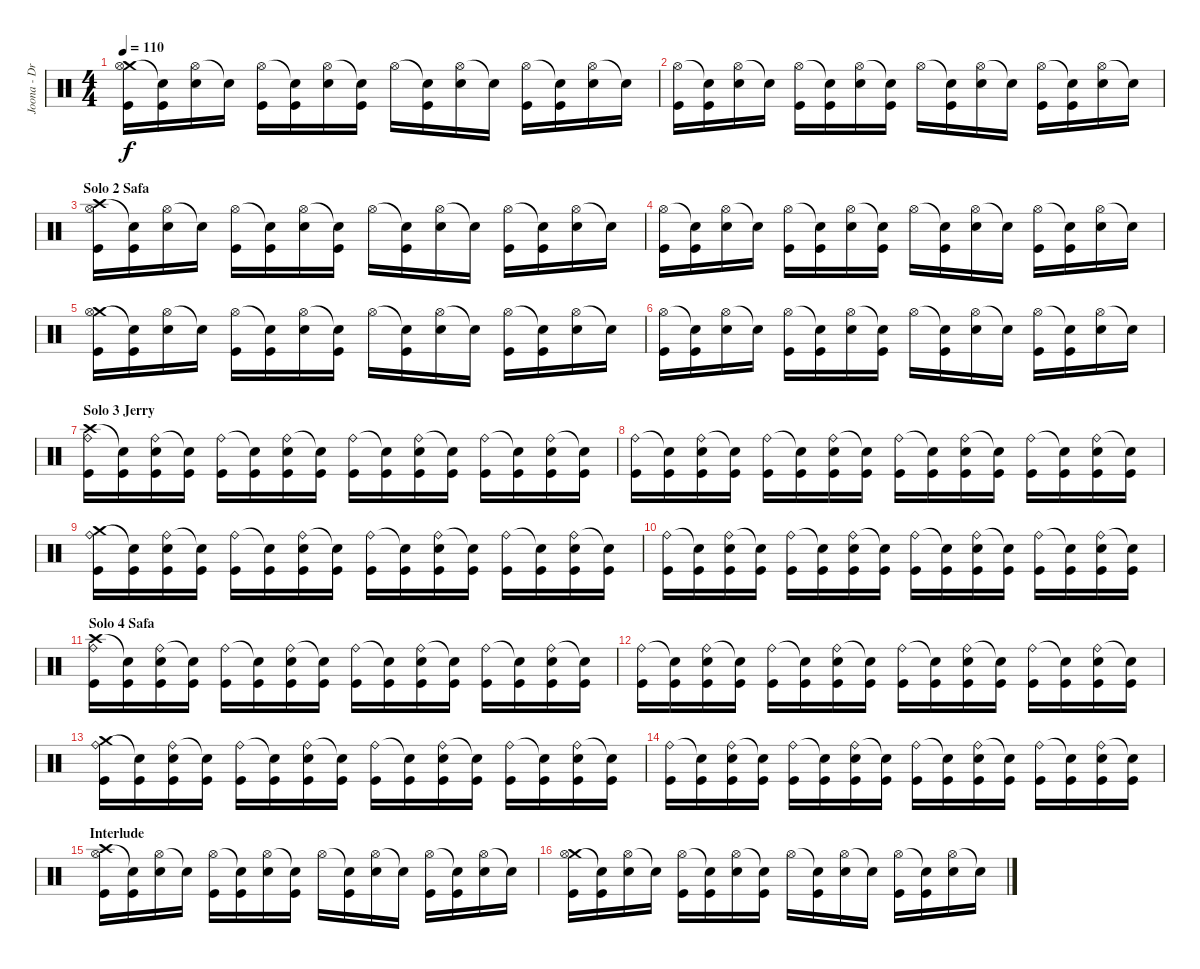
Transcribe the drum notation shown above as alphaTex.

\track ("Joona - Drums" "Joona - Dr") {instrument percussion}
\staff {score}
\articulation defaults
\ts (4 4)
\tempo 110
\clef neutral
\ks c
("Crash medium (hit)" "Hi-Hat (open)" "Kick (hit)").16{dy f} ("Snare (hit)"{t} "Kick (hit)").16 ("Hi-Hat (open)" "Snare (hit) 2").16 "Snare (hit)"{t}.16 ("Hi-Hat (open)" "Kick (hit)").16 ("Snare (hit)"{t} "Kick (hit)").16 ("Hi-Hat (open)" "Snare (hit) 2").16 ("Snare (hit)"{t} "Kick (hit)").16 "Hi-Hat (open)".16 ("Snare (hit)"{t} "Kick (hit)").16 ("Hi-Hat (open)" "Snare (hit) 2").16 "Snare (hit)"{t}.16 ("Hi-Hat (open)" "Kick (hit)").16 ("Snare (hit)"{t} "Kick (hit)").16 ("Hi-Hat (open)" "Snare (hit) 2").16 "Snare (hit)"{t}.16 |
("Hi-Hat (open)" "Kick (hit)").16 ("Snare (hit)"{t} "Kick (hit)").16 ("Hi-Hat (open)" "Snare (hit) 2").16 "Snare (hit)"{t}.16 ("Hi-Hat (open)" "Kick (hit)").16 ("Snare (hit)"{t} "Kick (hit)").16 ("Hi-Hat (open)" "Snare (hit) 2").16 ("Snare (hit)"{t} "Kick (hit)").16 "Hi-Hat (open)".16 ("Snare (hit)"{t} "Kick (hit)").16 ("Hi-Hat (open)" "Snare (hit) 2").16 "Snare (hit)"{t}.16 ("Hi-Hat (open)" "Kick (hit)").16 ("Snare (hit)"{t} "Kick (hit)").16 ("Hi-Hat (open)" "Snare (hit) 2").16 "Snare (hit)"{t}.16 |
\section ("" "Solo 2 Safa")
("Crash high (hit)" "Hi-Hat (open)" "Kick (hit)").16 ("Snare (hit)"{t} "Kick (hit)").16 ("Hi-Hat (open)" "Snare (hit) 2").16 "Snare (hit)"{t}.16 ("Hi-Hat (open)" "Kick (hit)").16 ("Snare (hit)"{t} "Kick (hit)").16 ("Hi-Hat (open)" "Snare (hit) 2").16 ("Snare (hit)"{t} "Kick (hit)").16 "Hi-Hat (open)".16 ("Snare (hit)"{t} "Kick (hit)").16 ("Hi-Hat (open)" "Snare (hit) 2").16 "Snare (hit)"{t}.16 ("Hi-Hat (open)" "Kick (hit)").16 ("Snare (hit)"{t} "Kick (hit)").16 ("Hi-Hat (open)" "Snare (hit) 2").16 "Snare (hit)"{t}.16 |
("Hi-Hat (open)" "Kick (hit)").16 ("Snare (hit)"{t} "Kick (hit)").16 ("Hi-Hat (open)" "Snare (hit) 2").16 "Snare (hit)"{t}.16 ("Hi-Hat (open)" "Kick (hit)").16 ("Snare (hit)"{t} "Kick (hit)").16 ("Hi-Hat (open)" "Snare (hit) 2").16 ("Snare (hit)"{t} "Kick (hit)").16 "Hi-Hat (open)".16 ("Snare (hit)"{t} "Kick (hit)").16 ("Hi-Hat (open)" "Snare (hit) 2").16 "Snare (hit)"{t}.16 ("Hi-Hat (open)" "Kick (hit)").16 ("Snare (hit)"{t} "Kick (hit)").16 ("Hi-Hat (open)" "Snare (hit) 2").16 "Snare (hit)"{t}.16 |
("Crash medium (hit)" "Hi-Hat (open)" "Kick (hit)").16 ("Snare (hit)"{t} "Kick (hit)").16 ("Hi-Hat (open)" "Snare (hit) 2").16 "Snare (hit)"{t}.16 ("Hi-Hat (open)" "Kick (hit)").16 ("Snare (hit)"{t} "Kick (hit)").16 ("Hi-Hat (open)" "Snare (hit) 2").16 ("Snare (hit)"{t} "Kick (hit)").16 "Hi-Hat (open)".16 ("Snare (hit)"{t} "Kick (hit)").16 ("Hi-Hat (open)" "Snare (hit) 2").16 "Snare (hit)"{t}.16 ("Hi-Hat (open)" "Kick (hit)").16 ("Snare (hit)"{t} "Kick (hit)").16 ("Hi-Hat (open)" "Snare (hit) 2").16 "Snare (hit)"{t}.16 |
("Hi-Hat (open)" "Kick (hit)").16 ("Snare (hit)"{t} "Kick (hit)").16 ("Hi-Hat (open)" "Snare (hit) 2").16 "Snare (hit)"{t}.16 ("Hi-Hat (open)" "Kick (hit)").16 ("Snare (hit)"{t} "Kick (hit)").16 ("Hi-Hat (open)" "Snare (hit) 2").16 ("Snare (hit)"{t} "Kick (hit)").16 "Hi-Hat (open)".16 ("Snare (hit)"{t} "Kick (hit)").16 ("Hi-Hat (open)" "Snare (hit) 2").16 "Snare (hit)"{t}.16 ("Hi-Hat (open)" "Kick (hit)").16 ("Snare (hit)"{t} "Kick (hit)").16 ("Hi-Hat (open)" "Snare (hit) 2").16 "Snare (hit)"{t}.16 |
\section ("" "Solo 3 Jerry")
("Crash high (hit)" "Ride (bell)" "Kick (hit)").16 ("Snare (hit)"{t} "Kick (hit)").16 ("Ride (bell)" "Snare (hit) 2" "Kick (hit)").16 ("Snare (hit)"{t} "Kick (hit)").16 ("Ride (bell)" "Kick (hit)").16 ("Snare (hit)"{t} "Kick (hit)").16 ("Ride (bell)" "Snare (hit) 2" "Kick (hit)").16 ("Snare (hit)"{t} "Kick (hit)").16 ("Ride (bell)" "Kick (hit)").16 ("Snare (hit)"{t} "Kick (hit)").16 ("Ride (bell)" "Snare (hit) 2" "Kick (hit)").16 ("Snare (hit)"{t} "Kick (hit)").16 ("Ride (bell)" "Kick (hit)").16 ("Snare (hit)"{t} "Kick (hit)").16 ("Ride (bell)" "Snare (hit) 2" "Kick (hit)").16 ("Snare (hit)"{t} "Kick (hit)").16 |
("Ride (bell)" "Kick (hit)").16 ("Snare (hit)"{t} "Kick (hit)").16 ("Ride (bell)" "Snare (hit) 2" "Kick (hit)").16 ("Snare (hit)"{t} "Kick (hit)").16 ("Ride (bell)" "Kick (hit)").16 ("Snare (hit)"{t} "Kick (hit)").16 ("Ride (bell)" "Snare (hit) 2" "Kick (hit)").16 ("Snare (hit)"{t} "Kick (hit)").16 ("Ride (bell)" "Kick (hit)").16 ("Snare (hit)"{t} "Kick (hit)").16 ("Ride (bell)" "Snare (hit) 2" "Kick (hit)").16 ("Snare (hit)"{t} "Kick (hit)").16 ("Ride (bell)" "Kick (hit)").16 ("Snare (hit)"{t} "Kick (hit)").16 ("Ride (bell)" "Snare (hit) 2" "Kick (hit)").16 ("Snare (hit)"{t} "Kick (hit)").16 |
("Crash medium (hit)" "Ride (bell)" "Kick (hit)").16 ("Snare (hit)"{t} "Kick (hit)").16 ("Ride (bell)" "Snare (hit) 2" "Kick (hit)").16 ("Snare (hit)"{t} "Kick (hit)").16 ("Ride (bell)" "Kick (hit)").16 ("Snare (hit)"{t} "Kick (hit)").16 ("Ride (bell)" "Snare (hit) 2" "Kick (hit)").16 ("Snare (hit)"{t} "Kick (hit)").16 ("Ride (bell)" "Kick (hit)").16 ("Snare (hit)"{t} "Kick (hit)").16 ("Ride (bell)" "Snare (hit) 2" "Kick (hit)").16 ("Snare (hit)"{t} "Kick (hit)").16 ("Ride (bell)" "Kick (hit)").16 ("Snare (hit)"{t} "Kick (hit)").16 ("Ride (bell)" "Snare (hit) 2" "Kick (hit)").16 ("Snare (hit)"{t} "Kick (hit)").16 |
("Ride (bell)" "Kick (hit)").16 ("Snare (hit)"{t} "Kick (hit)").16 ("Ride (bell)" "Snare (hit) 2" "Kick (hit)").16 ("Snare (hit)"{t} "Kick (hit)").16 ("Ride (bell)" "Kick (hit)").16 ("Snare (hit)"{t} "Kick (hit)").16 ("Ride (bell)" "Snare (hit) 2" "Kick (hit)").16 ("Snare (hit)"{t} "Kick (hit)").16 ("Ride (bell)" "Kick (hit)").16 ("Snare (hit)"{t} "Kick (hit)").16 ("Ride (bell)" "Snare (hit) 2" "Kick (hit)").16 ("Snare (hit)"{t} "Kick (hit)").16 ("Ride (bell)" "Kick (hit)").16 ("Snare (hit)"{t} "Kick (hit)").16 ("Ride (bell)" "Snare (hit) 2" "Kick (hit)").16 ("Snare (hit)"{t} "Kick (hit)").16 |
\section ("" "Solo 4 Safa")
("Crash high (hit)" "Ride (bell)" "Kick (hit)").16 ("Snare (hit)"{t} "Kick (hit)").16 ("Ride (bell)" "Snare (hit) 2" "Kick (hit)").16 ("Snare (hit)"{t} "Kick (hit)").16 ("Ride (bell)" "Kick (hit)").16 ("Snare (hit)"{t} "Kick (hit)").16 ("Ride (bell)" "Snare (hit) 2" "Kick (hit)").16 ("Snare (hit)"{t} "Kick (hit)").16 ("Ride (bell)" "Kick (hit)").16 ("Snare (hit)"{t} "Kick (hit)").16 ("Ride (bell)" "Snare (hit) 2" "Kick (hit)").16 ("Snare (hit)"{t} "Kick (hit)").16 ("Ride (bell)" "Kick (hit)").16 ("Snare (hit)"{t} "Kick (hit)").16 ("Ride (bell)" "Snare (hit) 2" "Kick (hit)").16 ("Snare (hit)"{t} "Kick (hit)").16 |
("Ride (bell)" "Kick (hit)").16 ("Snare (hit)"{t} "Kick (hit)").16 ("Ride (bell)" "Snare (hit) 2" "Kick (hit)").16 ("Snare (hit)"{t} "Kick (hit)").16 ("Ride (bell)" "Kick (hit)").16 ("Snare (hit)"{t} "Kick (hit)").16 ("Ride (bell)" "Snare (hit) 2" "Kick (hit)").16 ("Snare (hit)"{t} "Kick (hit)").16 ("Ride (bell)" "Kick (hit)").16 ("Snare (hit)"{t} "Kick (hit)").16 ("Ride (bell)" "Snare (hit) 2" "Kick (hit)").16 ("Snare (hit)"{t} "Kick (hit)").16 ("Ride (bell)" "Kick (hit)").16 ("Snare (hit)"{t} "Kick (hit)").16 ("Ride (bell)" "Snare (hit) 2" "Kick (hit)").16 ("Snare (hit)"{t} "Kick (hit)").16 |
("Crash medium (hit)" "Ride (bell)" "Kick (hit)").16 ("Snare (hit)"{t} "Kick (hit)").16 ("Ride (bell)" "Snare (hit) 2" "Kick (hit)").16 ("Snare (hit)"{t} "Kick (hit)").16 ("Ride (bell)" "Kick (hit)").16 ("Snare (hit)"{t} "Kick (hit)").16 ("Ride (bell)" "Snare (hit) 2" "Kick (hit)").16 ("Snare (hit)"{t} "Kick (hit)").16 ("Ride (bell)" "Kick (hit)").16 ("Snare (hit)"{t} "Kick (hit)").16 ("Ride (bell)" "Snare (hit) 2" "Kick (hit)").16 ("Snare (hit)"{t} "Kick (hit)").16 ("Ride (bell)" "Kick (hit)").16 ("Snare (hit)"{t} "Kick (hit)").16 ("Ride (bell)" "Snare (hit) 2" "Kick (hit)").16 ("Snare (hit)"{t} "Kick (hit)").16 |
("Ride (bell)" "Kick (hit)").16 ("Snare (hit)"{t} "Kick (hit)").16 ("Ride (bell)" "Snare (hit) 2" "Kick (hit)").16 ("Snare (hit)"{t} "Kick (hit)").16 ("Ride (bell)" "Kick (hit)").16 ("Snare (hit)"{t} "Kick (hit)").16 ("Ride (bell)" "Snare (hit) 2" "Kick (hit)").16 ("Snare (hit)"{t} "Kick (hit)").16 ("Ride (bell)" "Kick (hit)").16 ("Snare (hit)"{t} "Kick (hit)").16 ("Ride (bell)" "Snare (hit) 2" "Kick (hit)").16 ("Snare (hit)"{t} "Kick (hit)").16 ("Ride (bell)" "Kick (hit)").16 ("Snare (hit)"{t} "Kick (hit)").16 ("Ride (bell)" "Snare (hit) 2" "Kick (hit)").16 ("Snare (hit)"{t} "Kick (hit)").16 |
\section ("" "Interlude")
("Crash high (hit)" "Hi-Hat (open)" "Kick (hit)").16 ("Snare (hit)"{t} "Kick (hit)").16 ("Hi-Hat (open)" "Snare (hit) 2").16 "Snare (hit)"{t}.16 ("Hi-Hat (open)" "Kick (hit)").16 ("Snare (hit)"{t} "Kick (hit)").16 ("Hi-Hat (open)" "Snare (hit) 2").16 ("Snare (hit)"{t} "Kick (hit)").16 "Hi-Hat (open)".16 ("Snare (hit)"{t} "Kick (hit)").16 ("Hi-Hat (open)" "Snare (hit) 2").16 "Snare (hit)"{t}.16 ("Hi-Hat (open)" "Kick (hit)").16 ("Snare (hit)"{t} "Kick (hit)").16 ("Hi-Hat (open)" "Snare (hit) 2").16 "Snare (hit)"{t}.16 |
("Crash medium (hit)" "Hi-Hat (open)" "Kick (hit)").16 ("Snare (hit)"{t} "Kick (hit)").16 ("Hi-Hat (open)" "Snare (hit) 2").16 "Snare (hit)"{t}.16 ("Hi-Hat (open)" "Kick (hit)").16 ("Snare (hit)"{t} "Kick (hit)").16 ("Hi-Hat (open)" "Snare (hit) 2").16 ("Snare (hit)"{t} "Kick (hit)").16 "Hi-Hat (open)".16 ("Snare (hit)"{t} "Kick (hit)").16 ("Hi-Hat (open)" "Snare (hit) 2").16 "Snare (hit)"{t}.16 ("Hi-Hat (open)" "Kick (hit)").16 ("Snare (hit)"{t} "Kick (hit)").16 ("Hi-Hat (open)" "Snare (hit) 2").16 "Snare (hit)"{t}.16
